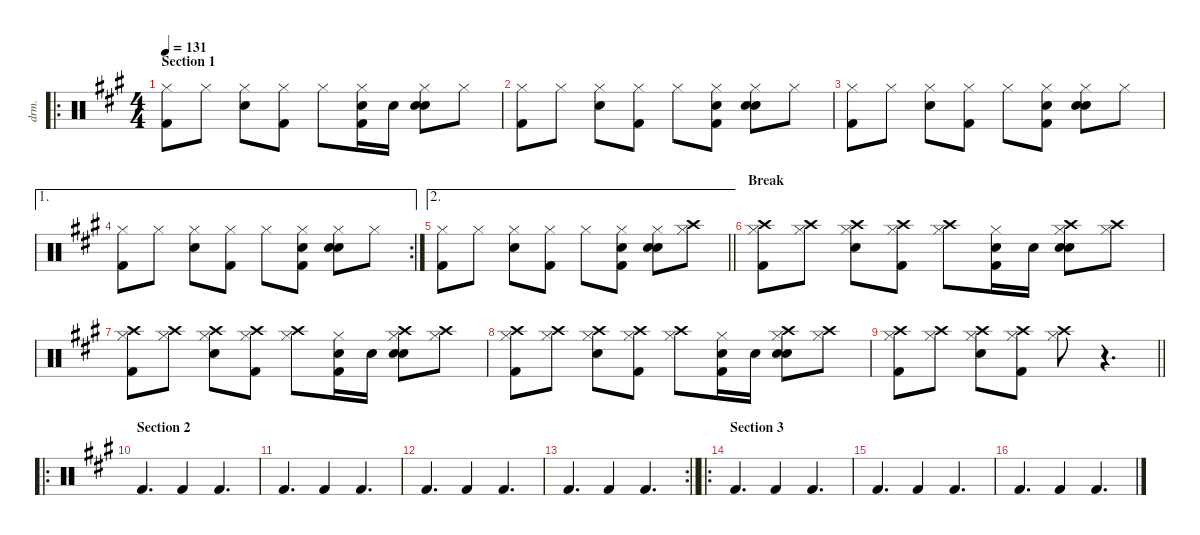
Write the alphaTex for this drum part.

\defaultSystemsLayout 4
\hideDynamics
\bracketExtendMode nobrackets
\otherSystemsTrackNameOrientation horizontal
\track ("Percussion" "drm.") {defaultSystemsLayout 4 instrument percussion}
\staff {score}
\articulation defaults
\ro
\ts (4 4)
\section ("" "Section 1")
\tempo 131
\clef neutral
\ks f#minor
("Hi-Hat (closed)"{acc forcenatural} "Kick (hit) 2"{acc forcenatural}).8{dy f beam Down} "Hi-Hat (closed)"{acc forcenatural}.8{beam Down} ("Hi-Hat (closed)"{acc forcenatural} "Snare (hit) 2"{acc forcenatural}).8{beam Down} ("Hi-Hat (closed)"{acc forcenatural} "Kick (hit) 2"{acc forcenatural}).8{beam Down} "Hi-Hat (closed)"{acc forcenatural}.8{beam Down} ("Hi-Hat (closed)"{acc forcenatural} "Hand Clap (hit)"{acc forcenatural} "Kick (hit) 2"{acc forcenatural}).16{beam Down} "Hand Clap (hit)"{acc forcenatural}.16{beam Down} ("Hi-Hat (closed)"{acc forcenatural} "Hand Clap (hit)"{acc forcenatural} "Snare (hit) 2"{acc forcenatural}).8{beam Down} "Hi-Hat (closed)"{acc forcenatural}.8{beam Down} |
("Hi-Hat (closed)"{acc forcenatural} "Kick (hit) 2"{acc forcenatural}).8{beam Down} "Hi-Hat (closed)"{acc forcenatural}.8{beam Down} ("Hi-Hat (closed)"{acc forcenatural} "Snare (hit) 2"{acc forcenatural}).8{beam Down} ("Hi-Hat (closed)"{acc forcenatural} "Kick (hit) 2"{acc forcenatural}).8{beam Down} "Hi-Hat (closed)"{acc forcenatural}.8{beam Down} ("Hi-Hat (closed)"{acc forcenatural} "Hand Clap (hit)"{acc forcenatural} "Kick (hit) 2"{acc forcenatural}).8{beam Down} ("Hi-Hat (closed)"{acc forcenatural} "Hand Clap (hit)"{acc forcenatural} "Snare (hit) 2"{acc forcenatural}).8{beam Down} "Hi-Hat (closed)"{acc forcenatural}.8{beam Down} |
("Hi-Hat (closed)"{acc forcenatural} "Kick (hit) 2"{acc forcenatural}).8{beam Down} "Hi-Hat (closed)"{acc forcenatural}.8{beam Down} ("Hi-Hat (closed)"{acc forcenatural} "Snare (hit) 2"{acc forcenatural}).8{beam Down} ("Hi-Hat (closed)"{acc forcenatural} "Kick (hit) 2"{acc forcenatural}).8{beam Down} "Hi-Hat (closed)"{acc forcenatural}.8{beam Down} ("Hi-Hat (closed)"{acc forcenatural} "Hand Clap (hit)"{acc forcenatural} "Kick (hit) 2"{acc forcenatural}).8{beam Down} ("Hi-Hat (closed)"{acc forcenatural} "Hand Clap (hit)"{acc forcenatural} "Snare (hit) 2"{acc forcenatural}).8{beam Down} "Hi-Hat (closed)"{acc forcenatural}.8{beam Down} |
\ae 1
\rc 2
("Hi-Hat (closed)"{acc forcenatural} "Kick (hit) 2"{acc forcenatural}).8{beam Down} "Hi-Hat (closed)"{acc forcenatural}.8{beam Down} ("Hi-Hat (closed)"{acc forcenatural} "Snare (hit) 2"{acc forcenatural}).8{beam Down} ("Hi-Hat (closed)"{acc forcenatural} "Kick (hit) 2"{acc forcenatural}).8{beam Down} "Hi-Hat (closed)"{acc forcenatural}.8{beam Down} ("Hi-Hat (closed)"{acc forcenatural} "Hand Clap (hit)"{acc forcenatural} "Kick (hit) 2"{acc forcenatural}).8{beam Down} ("Hi-Hat (closed)"{acc forcenatural} "Hand Clap (hit)"{acc forcenatural} "Snare (hit) 2"{acc forcenatural}).8{beam Down} "Hi-Hat (closed)"{acc forcenatural}.8{beam Down} |
\ae 2
\barLineRight lightlight
("Hi-Hat (closed)"{acc forcenatural} "Kick (hit) 2"{acc forcenatural}).8{beam Down} "Hi-Hat (closed)"{acc forcenatural}.8{beam Down} ("Hi-Hat (closed)"{acc forcenatural} "Snare (hit) 2"{acc forcenatural}).8{beam Down} ("Hi-Hat (closed)"{acc forcenatural} "Kick (hit) 2"{acc forcenatural}).8{beam Down} "Hi-Hat (closed)"{acc forcenatural}.8{beam Down} ("Hi-Hat (closed)"{acc forcenatural} "Hand Clap (hit)"{acc forcenatural} "Kick (hit) 2"{acc forcenatural}).8{beam Down} ("Hi-Hat (closed)"{acc forcenatural} "Hand Clap (hit)"{acc forcenatural} "Snare (hit) 2"{acc forcenatural}).8{beam Down} ("Crash high (hit)"{acc forcenatural} "Hi-Hat (closed)"{acc forcenatural}).8{beam Down} |
\section ("" "Break")
("Crash high (hit)"{acc forcenatural} "Hi-Hat (closed)"{acc forcenatural} "Kick (hit) 2"{acc forcenatural}).8{beam Down} ("Crash high (hit)"{acc forcenatural} "Hi-Hat (closed)"{acc forcenatural}).8{beam Down} ("Crash high (hit)"{acc forcenatural} "Hi-Hat (closed)"{acc forcenatural} "Snare (hit) 2"{acc forcenatural}).8{beam Down} ("Crash high (hit)"{acc forcenatural} "Hi-Hat (closed)"{acc forcenatural} "Kick (hit) 2"{acc forcenatural}).8{beam Down} ("Crash high (hit)"{acc forcenatural} "Hi-Hat (closed)"{acc forcenatural}).8{beam Down} ("Hi-Hat (closed)"{acc forcenatural} "Hand Clap (hit)"{acc forcenatural} "Kick (hit) 2"{acc forcenatural}).16{beam Down} "Hand Clap (hit)"{acc forcenatural}.16{beam Down} ("Crash high (hit)"{acc forcenatural} "Hi-Hat (closed)"{acc forcenatural} "Hand Clap (hit)"{acc forcenatural} "Snare (hit) 2"{acc forcenatural}).8{beam Down} ("Crash high (hit)"{acc forcenatural} "Hi-Hat (closed)"{acc forcenatural}).8{beam Down} |
("Crash high (hit)"{acc forcenatural} "Hi-Hat (closed)"{acc forcenatural} "Kick (hit) 2"{acc forcenatural}).8{beam Down} ("Crash high (hit)"{acc forcenatural} "Hi-Hat (closed)"{acc forcenatural}).8{beam Down} ("Crash high (hit)"{acc forcenatural} "Hi-Hat (closed)"{acc forcenatural} "Snare (hit) 2"{acc forcenatural}).8{beam Down} ("Crash high (hit)"{acc forcenatural} "Hi-Hat (closed)"{acc forcenatural} "Kick (hit) 2"{acc forcenatural}).8{beam Down} ("Crash high (hit)"{acc forcenatural} "Hi-Hat (closed)"{acc forcenatural}).8{beam Down} ("Hi-Hat (closed)"{acc forcenatural} "Hand Clap (hit)"{acc forcenatural} "Kick (hit) 2"{acc forcenatural}).16{beam Down} "Hand Clap (hit)"{acc forcenatural}.16{beam Down} ("Crash high (hit)"{acc forcenatural} "Hi-Hat (closed)"{acc forcenatural} "Hand Clap (hit)"{acc forcenatural} "Snare (hit) 2"{acc forcenatural}).8{beam Down} ("Crash high (hit)"{acc forcenatural} "Hi-Hat (closed)"{acc forcenatural}).8{beam Down} |
("Crash high (hit)"{acc forcenatural} "Hi-Hat (closed)"{acc forcenatural} "Kick (hit) 2"{acc forcenatural}).8{beam Down} ("Crash high (hit)"{acc forcenatural} "Hi-Hat (closed)"{acc forcenatural}).8{beam Down} ("Crash high (hit)"{acc forcenatural} "Hi-Hat (closed)"{acc forcenatural} "Snare (hit) 2"{acc forcenatural}).8{beam Down} ("Crash high (hit)"{acc forcenatural} "Hi-Hat (closed)"{acc forcenatural} "Kick (hit) 2"{acc forcenatural}).8{beam Down} ("Crash high (hit)"{acc forcenatural} "Hi-Hat (closed)"{acc forcenatural}).8{beam Down} ("Hi-Hat (closed)"{acc forcenatural} "Hand Clap (hit)"{acc forcenatural} "Kick (hit) 2"{acc forcenatural}).16{beam Down} "Hand Clap (hit)"{acc forcenatural}.16{beam Down} ("Crash high (hit)"{acc forcenatural} "Hi-Hat (closed)"{acc forcenatural} "Hand Clap (hit)"{acc forcenatural} "Snare (hit) 2"{acc forcenatural}).8{beam Down} ("Crash high (hit)"{acc forcenatural} "Hi-Hat (closed)"{acc forcenatural}).8{beam Down} |
\barLineRight lightlight
("Crash high (hit)"{acc forcenatural} "Hi-Hat (closed)"{acc forcenatural} "Kick (hit) 2"{acc forcenatural}).8{beam Down} ("Crash high (hit)"{acc forcenatural} "Hi-Hat (closed)"{acc forcenatural}).8{beam Down} ("Crash high (hit)"{acc forcenatural} "Hi-Hat (closed)"{acc forcenatural} "Snare (hit) 2"{acc forcenatural}).8{beam Down} ("Crash high (hit)"{acc forcenatural} "Hi-Hat (closed)"{acc forcenatural} "Kick (hit) 2"{acc forcenatural}).8{beam Down} ("Crash high (hit)"{acc forcenatural} "Hi-Hat (closed)"{acc forcenatural}).8{beam Down} r.4{d beam Down} |
\ro
\section ("" "Section 2")
"Kick (hit) 2"{acc forcenatural}.4{d beam Up} "Kick (hit) 2"{acc forcenatural}.4{beam Up} "Kick (hit) 2"{acc forcenatural}.4{d beam Up} |
"Kick (hit) 2"{acc forcenatural}.4{d beam Up} "Kick (hit) 2"{acc forcenatural}.4{beam Up} "Kick (hit) 2"{acc forcenatural}.4{d beam Up} |
"Kick (hit) 2"{acc forcenatural}.4{d beam Up} "Kick (hit) 2"{acc forcenatural}.4{beam Up} "Kick (hit) 2"{acc forcenatural}.4{d beam Up} |
\rc 2
\barLineRight lightlight "Kick (hit) 2"{acc forcenatural}.4{d beam Up} "Kick (hit) 2"{acc forcenatural}.4{beam Up} "Kick (hit) 2"{acc forcenatural}.4{d beam Up}
|
\ro
\section ("" "Section 3")
"Kick (hit) 2"{acc forcenatural}.4{d beam Up} "Kick (hit) 2"{acc forcenatural}.4{beam Up} "Kick (hit) 2"{acc forcenatural}.4{d beam Up} |
"Kick (hit) 2"{acc forcenatural}.4{d beam Up} "Kick (hit) 2"{acc forcenatural}.4{beam Up} "Kick (hit) 2"{acc forcenatural}.4{d beam Up} |
"Kick (hit) 2"{acc forcenatural}.4{d beam Up} "Kick (hit) 2"{acc forcenatural}.4{beam Up} "Kick (hit) 2"{acc forcenatural}.4{d beam Up}
